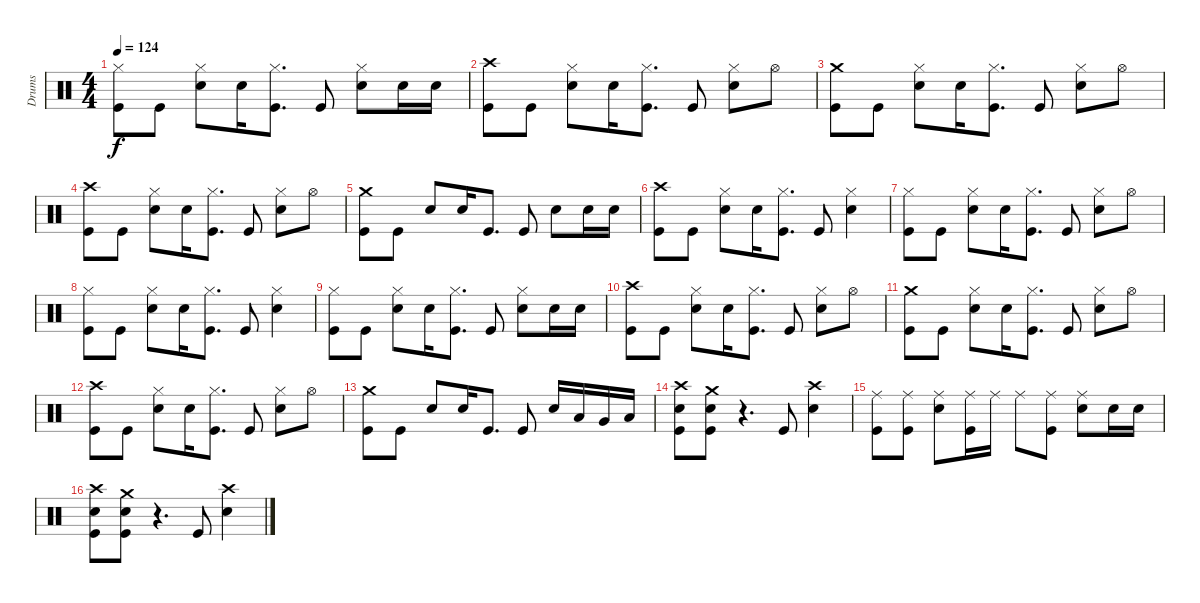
\track ("Drums" "Drums") {instrument percussion}
\staff {score}
\articulation defaults
\ts (4 4)
\tempo 124
\clef neutral
\ks c
("Hi-Hat (closed)" "Kick (hit)").8{dy f} "Kick (hit)".8 ("Hi-Hat (closed)" "Electric Snare (hit)").8 "Electric Snare (hit)".16 ("Hi-Hat (closed)" "Kick (hit)").8{d} "Kick (hit)".8 ("Hi-Hat (closed)" "Electric Snare (hit)").8 "Electric Snare (hit)".16 "Electric Snare (hit)".16 |
("Crash high (hit)" "Kick (hit)").8 "Kick (hit)".8 ("Hi-Hat (closed)" "Electric Snare (hit)").8 "Electric Snare (hit)".16 ("Hi-Hat (closed)" "Kick (hit)").8{d} "Kick (hit)".8 ("Hi-Hat (closed)" "Electric Snare (hit)").8 "Hi-Hat (open)".8 |
("Crash medium (hit)" "Kick (hit)").8 "Kick (hit)".8 ("Hi-Hat (closed)" "Electric Snare (hit)").8 "Electric Snare (hit)".16 ("Hi-Hat (closed)" "Kick (hit)").8{d} "Kick (hit)".8 ("Hi-Hat (closed)" "Electric Snare (hit)").8 "Hi-Hat (open)".8 |
("Crash high (hit)" "Kick (hit)").8 "Kick (hit)".8 ("Hi-Hat (closed)" "Electric Snare (hit)").8 "Electric Snare (hit)".16 ("Hi-Hat (closed)" "Kick (hit)").8{d} "Kick (hit)".8 ("Hi-Hat (closed)" "Electric Snare (hit)").8 "Hi-Hat (open)".8 |
("Crash medium (hit)" "Kick (hit)").8 "Kick (hit)".8 "Electric Snare (hit)".8 "Electric Snare (hit)".16 "Kick (hit)".8{d} "Kick (hit)".8 "Electric Snare (hit)".8 "Electric Snare (hit)".16 "Electric Snare (hit)".16 |
("Crash high (hit)" "Kick (hit)").8 "Kick (hit)".8 ("Hi-Hat (closed)" "Electric Snare (hit)").8 "Electric Snare (hit)".16 ("Hi-Hat (closed)" "Kick (hit)").8{d} "Kick (hit)".8 ("Hi-Hat (closed)" "Electric Snare (hit)").4 |
("Hi-Hat (closed)" "Kick (hit)").8 "Kick (hit)".8 ("Hi-Hat (closed)" "Electric Snare (hit)").8 "Electric Snare (hit)".16 ("Hi-Hat (closed)" "Kick (hit)").8{d} "Kick (hit)".8 ("Hi-Hat (closed)" "Electric Snare (hit)").8 "Hi-Hat (open)".8 |
("Hi-Hat (closed)" "Kick (hit)").8 "Kick (hit)".8 ("Hi-Hat (closed)" "Electric Snare (hit)").8 "Electric Snare (hit)".16 ("Hi-Hat (closed)" "Kick (hit)").8{d} "Kick (hit)".8 ("Hi-Hat (closed)" "Electric Snare (hit)").4 |
("Hi-Hat (closed)" "Kick (hit)").8 "Kick (hit)".8 ("Hi-Hat (closed)" "Electric Snare (hit)").8 "Electric Snare (hit)".16 ("Hi-Hat (closed)" "Kick (hit)").8{d} "Kick (hit)".8 ("Hi-Hat (closed)" "Electric Snare (hit)").8 "Electric Snare (hit)".16 "Electric Snare (hit)".16 |
("Crash high (hit)" "Kick (hit)").8 "Kick (hit)".8 ("Hi-Hat (closed)" "Electric Snare (hit)").8 "Electric Snare (hit)".16 ("Hi-Hat (closed)" "Kick (hit)").8{d} "Kick (hit)".8 ("Hi-Hat (closed)" "Electric Snare (hit)").8 "Hi-Hat (open)".8 |
("Crash medium (hit)" "Kick (hit)").8 "Kick (hit)".8 ("Hi-Hat (closed)" "Electric Snare (hit)").8 "Electric Snare (hit)".16 ("Hi-Hat (closed)" "Kick (hit)").8{d} "Kick (hit)".8 ("Hi-Hat (closed)" "Electric Snare (hit)").8 "Hi-Hat (open)".8 |
("Crash high (hit)" "Kick (hit)").8 "Kick (hit)".8 ("Hi-Hat (closed)" "Electric Snare (hit)").8 "Electric Snare (hit)".16 ("Hi-Hat (closed)" "Kick (hit)").8{d} "Kick (hit)".8 ("Hi-Hat (closed)" "Electric Snare (hit)").8 "Hi-Hat (open)".8 |
("Crash medium (hit)" "Kick (hit)").8 "Kick (hit)".8 "Electric Snare (hit)".8 "Electric Snare (hit)".16 "Kick (hit)".8{d} "Kick (hit)".8 "Electric Snare (hit)".16 "Low Tom (hit)".16 "Very Low Tom (hit)".16 "Low Floor Tom (hit)".16 |
("Crash high (hit)" "Electric Snare (hit)" "Kick (hit)").8 ("Crash medium (hit)" "Electric Snare (hit)" "Kick (hit)").8 r.4{d} "Kick (hit)".8 ("Crash high (hit)" "Electric Snare (hit)").4 |
("Ride (middle)" "Kick (hit)").8 ("Ride (middle)" "Kick (hit)").8 ("Ride (middle)" "Electric Snare (hit)").8 ("Ride (middle)" "Kick (hit)").16 "Ride (middle)".16 "Ride (middle)".8 ("Ride (middle)" "Kick (hit)").8 ("Ride (middle)" "Electric Snare (hit)").8 "Electric Snare (hit)".16 "Electric Snare (hit)".16 |
("Crash high (hit)" "Electric Snare (hit)" "Kick (hit)").8 ("Crash medium (hit)" "Electric Snare (hit)" "Kick (hit)").8 r.4{d} "Kick (hit)".8 ("Crash high (hit)" "Electric Snare (hit)").4
